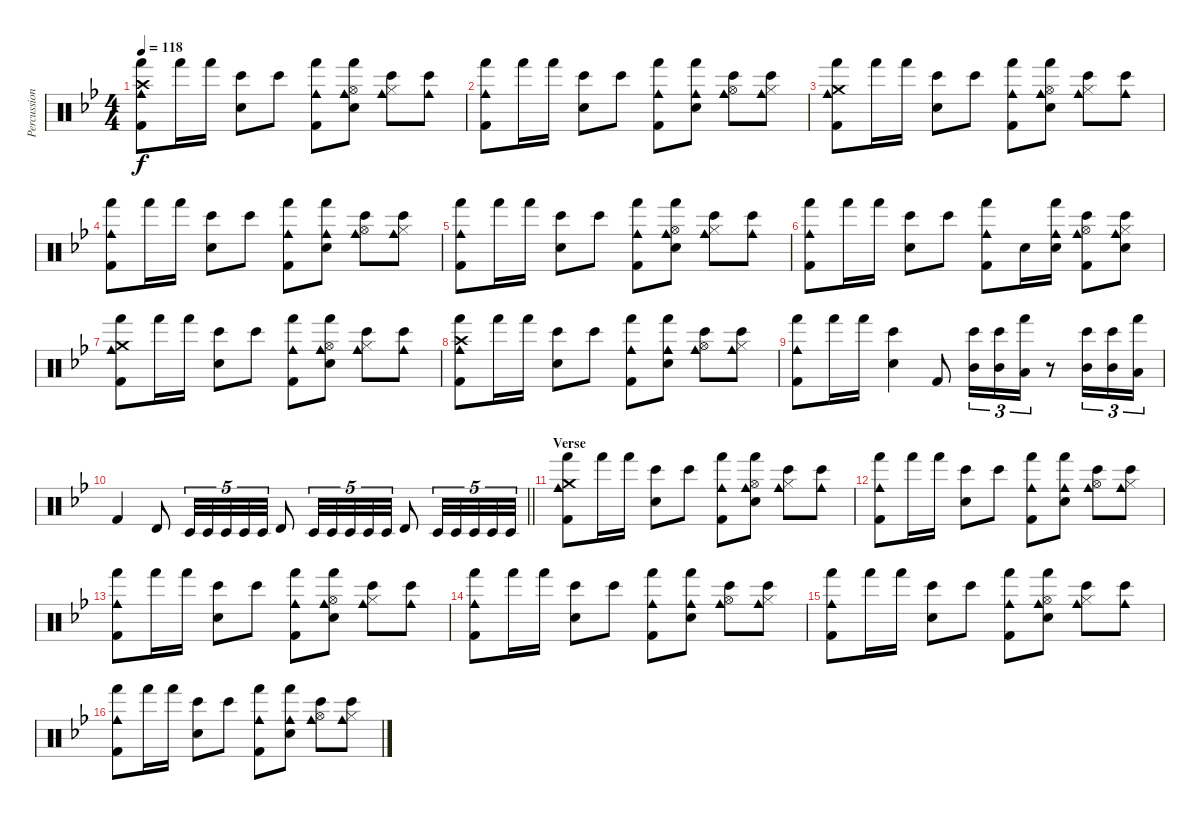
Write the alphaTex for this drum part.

\track ("Percussion" "Percussion") {instrument percussion}
\staff {score}
\articulation defaults
\ts (4 4)
\tempo 118
\clef neutral
\ks gminor
("Cowbell medium (hit)" "Hand (hit)" "Crash high (hit)" "Kick (hit) 2").8{dy f} "Hand (hit)".16 "Hand (hit)".16 ("Bongo High (hit)" "Electric Snare (hit)").8 "Bongo High (hit)".8 ("Cowbell medium (hit)" "Hand (hit)" "Kick (hit) 2").8 ("Cowbell medium (hit)" "Hand (hit)" "Electric Snare (hit)" "Hi-Hat (open)").8 ("Cowbell medium (hit)" "Bongo High (hit)" "Hi-Hat (closed)").8 ("Cowbell medium (hit)" "Bongo High (hit)").8 |
("Cowbell medium (hit)" "Hand (hit)" "Kick (hit) 2").8 "Hand (hit)".16 "Hand (hit)".16 ("Bongo High (hit)" "Electric Snare (hit)").8 "Bongo High (hit)".8 ("Cowbell medium (hit)" "Hand (hit)" "Kick (hit) 2").8 ("Cowbell medium (hit)" "Hand (hit)" "Electric Snare (hit)").8 ("Cowbell medium (hit)" "Bongo High (hit)" "Hi-Hat (open)").8 ("Cowbell medium (hit)" "Bongo High (hit)" "Hi-Hat (closed)").8 |
("Cowbell medium (hit)" "Hand (hit)" "Crash medium (hit)" "Kick (hit) 2").8 "Hand (hit)".16 "Hand (hit)".16 ("Bongo High (hit)" "Electric Snare (hit)").8 "Bongo High (hit)".8 ("Cowbell medium (hit)" "Hand (hit)" "Kick (hit) 2").8 ("Cowbell medium (hit)" "Hand (hit)" "Electric Snare (hit)" "Hi-Hat (open)").8 ("Cowbell medium (hit)" "Bongo High (hit)" "Hi-Hat (closed)").8 ("Cowbell medium (hit)" "Bongo High (hit)").8 |
("Cowbell medium (hit)" "Hand (hit)" "Kick (hit) 2").8 "Hand (hit)".16 "Hand (hit)".16 ("Bongo High (hit)" "Electric Snare (hit)").8 "Bongo High (hit)".8 ("Cowbell medium (hit)" "Hand (hit)" "Kick (hit) 2").8 ("Cowbell medium (hit)" "Hand (hit)" "Electric Snare (hit)").8 ("Cowbell medium (hit)" "Bongo High (hit)" "Hi-Hat (open)").8 ("Cowbell medium (hit)" "Bongo High (hit)" "Hi-Hat (closed)").8 |
("Cowbell medium (hit)" "Hand (hit)" "Kick (hit) 2").8 "Hand (hit)".16 "Hand (hit)".16 ("Bongo High (hit)" "Electric Snare (hit)").8 "Bongo High (hit)".8 ("Cowbell medium (hit)" "Hand (hit)" "Kick (hit) 2").8 ("Cowbell medium (hit)" "Hand (hit)" "Electric Snare (hit)" "Hi-Hat (open)").8 ("Cowbell medium (hit)" "Bongo High (hit)" "Hi-Hat (closed)").8 ("Cowbell medium (hit)" "Bongo High (hit)").8 |
("Cowbell medium (hit)" "Hand (hit)" "Kick (hit) 2").8 "Hand (hit)".16 "Hand (hit)".16 ("Bongo High (hit)" "Electric Snare (hit)").8 "Bongo High (hit)".8 ("Cowbell medium (hit)" "Hand (hit)" "Kick (hit) 2").8 "Electric Snare (hit)".16 ("Cowbell medium (hit)" "Hand (hit)" "Electric Snare (hit)").16 ("Cowbell medium (hit)" "Bongo High (hit)" "Kick (hit) 2" "Hi-Hat (open)").8 ("Cowbell medium (hit)" "Bongo High (hit)" "Electric Snare (hit)" "Hi-Hat (closed)").8 |
("Cowbell medium (hit)" "Hand (hit)" "Crash medium (hit)" "Kick (hit) 2").8 "Hand (hit)".16 "Hand (hit)".16 ("Bongo High (hit)" "Electric Snare (hit)").8 "Bongo High (hit)".8 ("Cowbell medium (hit)" "Hand (hit)" "Kick (hit) 2").8 ("Cowbell medium (hit)" "Hand (hit)" "Electric Snare (hit)" "Hi-Hat (open)").8 ("Cowbell medium (hit)" "Bongo High (hit)" "Hi-Hat (closed)").8 ("Cowbell medium (hit)" "Bongo High (hit)").8 |
("Cowbell medium (hit)" "Hand (hit)" "Crash high (hit)" "Kick (hit) 2").8 "Hand (hit)".16 "Hand (hit)".16 ("Bongo High (hit)" "Electric Snare (hit)").8 "Bongo High (hit)".8 ("Cowbell medium (hit)" "Hand (hit)" "Kick (hit) 2").8 ("Cowbell medium (hit)" "Hand (hit)" "Electric Snare (hit)").8 ("Cowbell medium (hit)" "Bongo High (hit)" "Hi-Hat (open)").8 ("Cowbell medium (hit)" "Bongo High (hit)" "Hi-Hat (closed)").8 |
("Cowbell medium (hit)" "Hand (hit)" "Kick (hit) 2").8 "Hand (hit)".16 "Hand (hit)".16 ("Bongo High (hit)" "Electric Snare (hit)").4 "Kick (hit) 2".8 ("Bongo High (hit)" "Mid Tom (hit)").16{tu (3 2)} ("Bongo High (hit)" "Mid Tom (hit)").16{tu (3 2)} ("Hand (hit)" "Low Tom (hit)").16{tu (3 2)} r.8 ("Bongo High (hit)" "Mid Tom (hit)").16{tu (3 2)} ("Bongo High (hit)" "Mid Tom (hit)").16{tu (3 2)} ("Hand (hit)" "Low Tom (hit)").16{tu (3 2)} |
\barLineRight lightlight "Kick (hit) 2".4 "Timbale high (hit)".8 "Timbale low (hit)".32{tu (5 4)} "Timbale low (hit)".32{tu (5 4)} "Timbale low (hit)".32{tu (5 4)} "Timbale low (hit)".32{tu (5 4)} "Timbale low (hit)".32{tu (5 4)} "Timbale high (hit)".8 "Timbale low (hit)".32{tu (5 4)} "Timbale low (hit)".32{tu (5 4)} "Timbale low (hit)".32{tu (5 4)} "Timbale low (hit)".32{tu (5 4)} "Timbale low (hit)".32{tu (5 4)} "Timbale high (hit)".8 "Timbale low (hit)".32{tu (5 4)} "Timbale low (hit)".32{tu (5 4)} "Timbale low (hit)".32{tu (5 4)} "Timbale low (hit)".32{tu (5 4)} "Timbale low (hit)".32{tu (5 4)}
|
\section ("" "Verse")
("Cowbell medium (hit)" "Hand (hit)" "Crash medium (hit)" "Kick (hit) 2").8 "Hand (hit)".16 "Hand (hit)".16 ("Bongo High (hit)" "Electric Snare (hit)").8 "Bongo High (hit)".8 ("Cowbell medium (hit)" "Hand (hit)" "Kick (hit) 2").8 ("Cowbell medium (hit)" "Hand (hit)" "Electric Snare (hit)" "Hi-Hat (open)").8 ("Cowbell medium (hit)" "Bongo High (hit)" "Hi-Hat (closed)").8 ("Cowbell medium (hit)" "Bongo High (hit)").8 |
("Cowbell medium (hit)" "Hand (hit)" "Kick (hit) 2").8 "Hand (hit)".16 "Hand (hit)".16 ("Bongo High (hit)" "Electric Snare (hit)").8 "Bongo High (hit)".8 ("Cowbell medium (hit)" "Hand (hit)" "Kick (hit) 2").8 ("Cowbell medium (hit)" "Hand (hit)" "Electric Snare (hit)").8 ("Cowbell medium (hit)" "Bongo High (hit)" "Hi-Hat (open)").8 ("Cowbell medium (hit)" "Bongo High (hit)" "Hi-Hat (closed)").8 |
("Cowbell medium (hit)" "Hand (hit)" "Kick (hit) 2").8 "Hand (hit)".16 "Hand (hit)".16 ("Bongo High (hit)" "Electric Snare (hit)").8 "Bongo High (hit)".8 ("Cowbell medium (hit)" "Hand (hit)" "Kick (hit) 2").8 ("Cowbell medium (hit)" "Hand (hit)" "Electric Snare (hit)" "Hi-Hat (open)").8 ("Cowbell medium (hit)" "Bongo High (hit)" "Hi-Hat (closed)").8 ("Cowbell medium (hit)" "Bongo High (hit)").8 |
("Cowbell medium (hit)" "Hand (hit)" "Kick (hit) 2").8 "Hand (hit)".16 "Hand (hit)".16 ("Bongo High (hit)" "Electric Snare (hit)").8 "Bongo High (hit)".8 ("Cowbell medium (hit)" "Hand (hit)" "Kick (hit) 2").8 ("Cowbell medium (hit)" "Hand (hit)" "Electric Snare (hit)").8 ("Cowbell medium (hit)" "Bongo High (hit)" "Hi-Hat (open)").8 ("Cowbell medium (hit)" "Bongo High (hit)" "Hi-Hat (closed)").8 |
("Cowbell medium (hit)" "Hand (hit)" "Kick (hit) 2").8 "Hand (hit)".16 "Hand (hit)".16 ("Bongo High (hit)" "Electric Snare (hit)").8 "Bongo High (hit)".8 ("Cowbell medium (hit)" "Hand (hit)" "Kick (hit) 2").8 ("Cowbell medium (hit)" "Hand (hit)" "Electric Snare (hit)" "Hi-Hat (open)").8 ("Cowbell medium (hit)" "Bongo High (hit)" "Hi-Hat (closed)").8 ("Cowbell medium (hit)" "Bongo High (hit)").8 |
("Cowbell medium (hit)" "Hand (hit)" "Kick (hit) 2").8 "Hand (hit)".16 "Hand (hit)".16 ("Bongo High (hit)" "Electric Snare (hit)").8 "Bongo High (hit)".8 ("Cowbell medium (hit)" "Hand (hit)" "Kick (hit) 2").8 ("Cowbell medium (hit)" "Hand (hit)" "Electric Snare (hit)").8 ("Cowbell medium (hit)" "Bongo High (hit)" "Hi-Hat (open)").8 ("Cowbell medium (hit)" "Bongo High (hit)" "Hi-Hat (closed)").8
